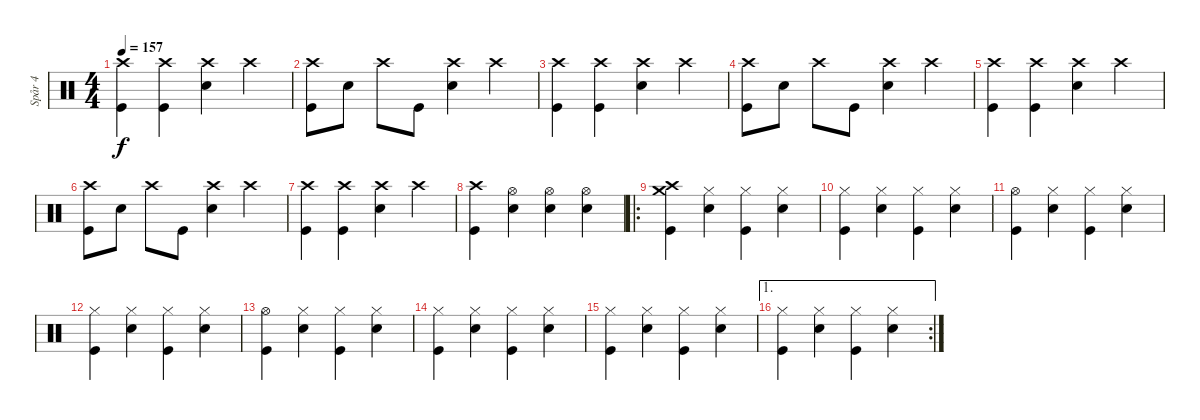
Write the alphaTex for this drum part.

\track ("Spår 4" "Spår 4") {instrument percussion}
\staff {score}
\articulation defaults
\ts (4 4)
\tempo 157
\clef neutral
\ks c
("Crash high (hit)" "Kick (hit)").4{dy f} ("Crash high (hit)" "Kick (hit)").4 ("Crash high (hit)" "Snare (hit) 2").4 "Crash high (hit)".4 |
("Crash high (hit)" "Kick (hit)").8 "Snare (hit) 2".8 "Crash high (hit)".8 "Kick (hit)".8 ("Crash high (hit)" "Snare (hit) 2").4 "Crash high (hit)".4 |
("Crash high (hit)" "Kick (hit)").4 ("Crash high (hit)" "Kick (hit)").4 ("Crash high (hit)" "Snare (hit) 2").4 "Crash high (hit)".4 |
("Crash high (hit)" "Kick (hit)").8 "Snare (hit) 2".8 "Crash high (hit)".8 "Kick (hit)".8 ("Crash high (hit)" "Snare (hit) 2").4 "Crash high (hit)".4 |
("Crash high (hit)" "Kick (hit)").4 ("Crash high (hit)" "Kick (hit)").4 ("Crash high (hit)" "Snare (hit) 2").4 "Crash high (hit)".4 |
("Crash high (hit)" "Kick (hit)").8 "Snare (hit) 2".8 "Crash high (hit)".8 "Kick (hit)".8 ("Crash high (hit)" "Snare (hit) 2").4 "Crash high (hit)".4 |
("Crash high (hit)" "Kick (hit)").4 ("Crash high (hit)" "Kick (hit)").4 ("Crash high (hit)" "Snare (hit) 2").4 "Crash high (hit)".4 |
("Crash high (hit)" "Kick (hit)").4 ("Hi-Hat (open)" "Snare (hit) 2").4 ("Hi-Hat (open)" "Snare (hit) 2").4 ("Hi-Hat (open)" "Snare (hit) 2").4 |
\ro
("Crash medium (hit)" "Crash high (hit)" "Kick (hit)").4 ("Hi-Hat (closed)" "Snare (hit) 2").4 ("Hi-Hat (closed)" "Kick (hit)").4 ("Hi-Hat (closed)" "Snare (hit) 2").4 |
("Hi-Hat (closed)" "Kick (hit)").4 ("Hi-Hat (closed)" "Snare (hit) 2").4 ("Hi-Hat (closed)" "Kick (hit)").4 ("Hi-Hat (closed)" "Snare (hit) 2").4 |
("Hi-Hat (open)" "Kick (hit)").4 ("Hi-Hat (closed)" "Snare (hit) 2").4 ("Hi-Hat (closed)" "Kick (hit)").4 ("Hi-Hat (closed)" "Snare (hit) 2").4 |
("Hi-Hat (closed)" "Kick (hit)").4 ("Hi-Hat (closed)" "Snare (hit) 2").4 ("Hi-Hat (closed)" "Kick (hit)").4 ("Hi-Hat (closed)" "Snare (hit) 2").4 |
("Hi-Hat (open)" "Kick (hit)").4 ("Hi-Hat (closed)" "Snare (hit) 2").4 ("Hi-Hat (closed)" "Kick (hit)").4 ("Hi-Hat (closed)" "Snare (hit) 2").4 |
("Hi-Hat (closed)" "Kick (hit)").4 ("Hi-Hat (closed)" "Snare (hit) 2").4 ("Hi-Hat (closed)" "Kick (hit)").4 ("Hi-Hat (closed)" "Snare (hit) 2").4 |
("Hi-Hat (closed)" "Kick (hit)").4 ("Hi-Hat (closed)" "Snare (hit) 2").4 ("Hi-Hat (closed)" "Kick (hit)").4 ("Hi-Hat (closed)" "Snare (hit) 2").4 |
\ae 1
\rc 2
("Hi-Hat (closed)" "Kick (hit)").4 ("Hi-Hat (closed)" "Snare (hit) 2").4 ("Hi-Hat (closed)" "Kick (hit)").4 ("Hi-Hat (closed)" "Snare (hit) 2").4
